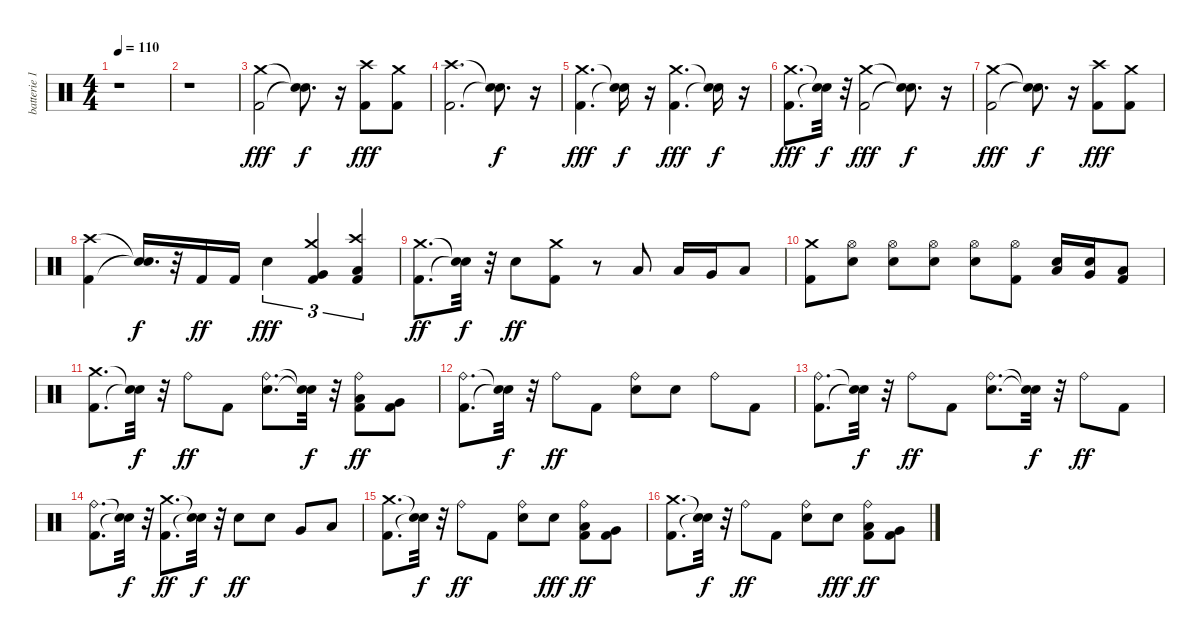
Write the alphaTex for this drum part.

\track ("batterie 1" "batterie 1") {instrument percussion}
\staff {score}
\articulation defaults
\ts (4 4)
\tempo 110
\clef neutral
\ks c
r.1{dy fff} |
r.1 |
("Kick (hit) 2" "Crash medium (hit)").2 ("Snare (hit)"{t} "Snare (hit)"{t}).8{d dy f} r.16 ("Kick (hit) 2" "Crash high (hit)").8{dy fff} ("Kick (hit) 2" "Crash medium (hit)").8 |
("Kick (hit) 2" "Crash high (hit)").2{d} ("Snare (hit)"{t} "Snare (hit)"{t}).8{d dy f} r.16 |
("Kick (hit) 2" "Crash medium (hit)").4{d dy fff} ("Snare (hit)"{t} "Snare (hit)"{t}).16{dy f} r.16 ("Kick (hit) 2" "Crash medium (hit)").4{d dy fff} ("Snare (hit)"{t} "Snare (hit)"{t}).16{dy f} r.16 |
("Kick (hit) 2" "Crash medium (hit)").8{d dy fff} ("Snare (hit)"{t} "Snare (hit)"{t}).32{dy f} r.32 ("Kick (hit) 2" "Crash medium (hit)").2{dy fff} ("Snare (hit)"{t} "Snare (hit)"{t}).8{d dy f} r.16 |
("Kick (hit) 2" "Crash medium (hit)").2{dy fff} ("Snare (hit)"{t} "Snare (hit)"{t}).8{d dy f} r.16 ("Kick (hit) 2" "Crash high (hit)").8{dy fff} ("Kick (hit) 2" "Crash medium (hit)").8 |
("Kick (hit) 2" "Crash high (hit)").4 ("Snare (hit)"{t} "Snare (hit)"{t}).16{d dy f} r.32 "Kick (hit) 2".16{dy ff} "Kick (hit) 2".16 "Electric Snare (hit)".4{tu (3 2) dy fff} ("Kick (hit) 2" "Very Low Tom (hit)" "Crash medium (hit)").4{tu (3 2)} ("Kick (hit) 2" "Low Floor Tom (hit)" "Crash high (hit)").4{tu (3 2)} |
("Kick (hit) 2" "Crash medium (hit)").8{d dy ff} ("Snare (hit)"{t} "Snare (hit)"{t}).32{dy f} r.32 "Electric Snare (hit)".8{dy ff} ("Kick (hit) 2" "Crash medium (hit)").8 r.8 "Low Tom (hit)".8 "Low Tom (hit)".16 "Very Low Tom (hit)".16 "Low Floor Tom (hit)".8 |
("Kick (hit) 2" "Crash medium (hit)").8 ("Electric Snare (hit)" "Hi-Hat (open)").8 ("Electric Snare (hit)" "Hi-Hat (open)").8 ("Electric Snare (hit)" "Hi-Hat (open)").8 ("Electric Snare (hit)" "Hi-Hat (open)").8 ("Kick (hit) 2" "Hi-Hat (open)").8 ("Electric Snare (hit)" "Low Tom (hit)").16 ("Electric Snare (hit)" "Very Low Tom (hit)").16 ("Kick (hit) 2" "Low Floor Tom (hit)").8 |
("Kick (hit) 2" "Crash medium (hit)").8{d} ("Snare (hit)"{t} "Snare (hit)"{t}).32{dy f} r.32 "Ride (bell)".8{dy ff} "Kick (hit) 2".8 ("Electric Snare (hit)" "Ride (bell)").8{d} ("Snare (hit)"{t} "Snare (hit)"{t}).32{dy f} r.32 ("Kick (hit) 2" "Low Tom (hit)" "Ride (bell)").8{dy ff} ("Kick (hit) 2" "Very Low Tom (hit)").8 |
("Kick (hit) 2" "Ride (bell)").8{d} ("Snare (hit)"{t} "Snare (hit)"{t}).32{dy f} r.32 "Ride (bell)".8{dy ff} "Kick (hit) 2".8 ("Electric Snare (hit)" "Ride (bell)").8 "Electric Snare (hit)".8 "Ride (bell)".8 "Kick (hit) 2".8 |
("Kick (hit) 2" "Ride (bell)").8{d} ("Snare (hit)"{t} "Snare (hit)"{t}).32{dy f} r.32 "Ride (bell)".8{dy ff} "Kick (hit) 2".8 ("Electric Snare (hit)" "Ride (bell)").8{d} ("Snare (hit)"{t} "Snare (hit)"{t}).32{dy f} r.32 "Ride (bell)".8{dy ff} "Kick (hit) 2".8 |
("Kick (hit) 2" "Ride (bell)").8{d} ("Snare (hit)"{t} "Snare (hit)"{t}).32{dy f} r.32 ("Kick (hit) 2" "Crash medium (hit)").8{d dy ff} ("Snare (hit)"{t} "Snare (hit)"{t}).32{dy f} r.32 "Electric Snare (hit)".8{dy ff} "Electric Snare (hit)".8 "Very Low Tom (hit)".8 "Low Floor Tom (hit)".8 |
("Kick (hit) 2" "Crash medium (hit)").8{d} ("Snare (hit)"{t} "Snare (hit)"{t}).32{dy f} r.32 "Ride (bell)".8{dy ff} "Kick (hit) 2".8 ("Electric Snare (hit)" "Ride (bell)").8 "Electric Snare (hit)".8{dy fff} ("Kick (hit) 2" "Low Tom (hit)" "Ride (bell)").8{dy ff} ("Kick (hit) 2" "Very Low Tom (hit)").8 |
("Kick (hit) 2" "Crash medium (hit)").8{d} ("Snare (hit)"{t} "Snare (hit)"{t}).32{dy f} r.32 "Ride (bell)".8{dy ff} "Kick (hit) 2".8 ("Electric Snare (hit)" "Ride (bell)").8 "Electric Snare (hit)".8{dy fff} ("Kick (hit) 2" "Low Tom (hit)" "Ride (bell)").8{dy ff} ("Kick (hit) 2" "Very Low Tom (hit)").8
